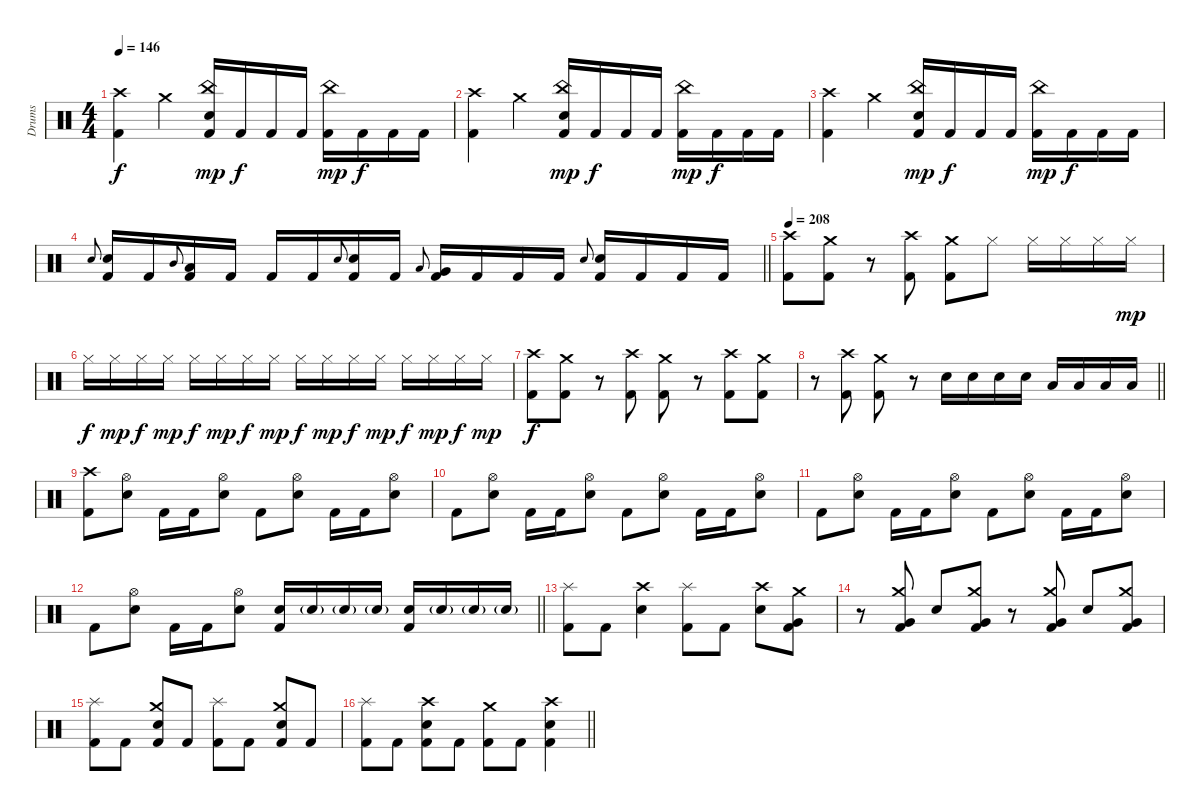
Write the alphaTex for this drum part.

\track ("Drums" "Drums") {instrument percussion}
\staff {score}
\articulation defaults
\ts (4 4)
\tempo 146
\clef neutral
\ks c
("Crash high (hit)" "Kick (hit) 2").4{dy f} "Crash medium (hit)".4 ("China (hit)" "Electric Snare (hit)" "Kick (hit) 2").16{dy mp} "Kick (hit) 2".16{dy f} "Kick (hit) 2".16 "Kick (hit) 2".16 ("China (hit)" "Kick (hit) 2").16{dy mp} "Kick (hit) 2".16{dy f} "Kick (hit) 2".16 "Kick (hit) 2".16 |
("Crash high (hit)" "Kick (hit) 2").4 "Crash medium (hit)".4 ("China (hit)" "Electric Snare (hit)" "Kick (hit) 2").16{dy mp} "Kick (hit) 2".16{dy f} "Kick (hit) 2".16 "Kick (hit) 2".16 ("China (hit)" "Kick (hit) 2").16{dy mp} "Kick (hit) 2".16{dy f} "Kick (hit) 2".16 "Kick (hit) 2".16 |
("Crash high (hit)" "Kick (hit) 2").4 "Crash medium (hit)".4 ("China (hit)" "Electric Snare (hit)" "Kick (hit) 2").16{dy mp} "Kick (hit) 2".16{dy f} "Kick (hit) 2".16 "Kick (hit) 2".16 ("China (hit)" "Kick (hit) 2").16{dy mp} "Kick (hit) 2".16{dy f} "Kick (hit) 2".16 "Kick (hit) 2".16 |
\barLineRight lightlight "Electric Snare (hit)".8{gr onbeat}
("Electric Snare (hit)" "Kick (hit) 2").16 "Kick (hit) 2".16 "Mid Tom (hit)".8{gr onbeat} ("Low Tom (hit)" "Kick (hit) 2").16 "Kick (hit) 2".16 "Kick (hit) 2".16 "Kick (hit) 2".16 "Electric Snare (hit)".8{gr onbeat} ("Electric Snare (hit)" "Kick (hit) 2").16 "Kick (hit) 2".16 "Low Tom (hit)".8{gr onbeat} ("Very Low Tom (hit)" "Kick (hit) 2").16 "Kick (hit) 2".16 "Kick (hit) 2".16 "Kick (hit) 2".16 "Electric Snare (hit)".8{gr onbeat} ("Electric Snare (hit)" "Kick (hit) 2").16 "Kick (hit) 2".16 "Kick (hit) 2".16 "Kick (hit) 2".16 |
\tempo 208
("Crash high (hit)" "Kick (hit) 2").8 ("Crash medium (hit)" "Kick (hit) 2").8 r.8 ("Crash high (hit)" "Kick (hit) 2").8 ("Crash medium (hit)" "Kick (hit) 2").8 "Hi-Hat (closed)".8 "Hi-Hat (closed)".16 "Hi-Hat (closed)".16 "Hi-Hat (closed)".16 "Hi-Hat (closed)".16{dy mp} |
"Hi-Hat (closed)".16{dy f} "Hi-Hat (closed)".16{dy mp} "Hi-Hat (closed)".16{dy f} "Hi-Hat (closed)".16{dy mp} "Hi-Hat (closed)".16{dy f} "Hi-Hat (closed)".16{dy mp} "Hi-Hat (closed)".16{dy f} "Hi-Hat (closed)".16{dy mp} "Hi-Hat (closed)".16{dy f} "Hi-Hat (closed)".16{dy mp} "Hi-Hat (closed)".16{dy f} "Hi-Hat (closed)".16{dy mp} "Hi-Hat (closed)".16{dy f} "Hi-Hat (closed)".16{dy mp} "Hi-Hat (closed)".16{dy f} "Hi-Hat (closed)".16{dy mp} |
("Crash high (hit)" "Kick (hit) 2").8{dy f} ("Crash medium (hit)" "Kick (hit) 2").8 r.8 ("Crash high (hit)" "Kick (hit) 2").8 ("Crash medium (hit)" "Kick (hit) 2").8 r.8 ("Crash high (hit)" "Kick (hit) 2").8 ("Crash medium (hit)" "Kick (hit) 2").8 |
\barLineRight lightlight
r.8 ("Crash high (hit)" "Kick (hit) 2").8 ("Crash medium (hit)" "Kick (hit) 2").8 r.8 "Electric Snare (hit)".16 "Electric Snare (hit)".16 "Electric Snare (hit)".16 "Electric Snare (hit)".16 "Low Tom (hit)".16 "Low Tom (hit)".16 "Low Tom (hit)".16 "Low Tom (hit)".16 |
("Crash high (hit)" "Kick (hit) 2").8 ("Hi-Hat (open)" "Electric Snare (hit)").8 "Kick (hit) 2".16 "Kick (hit) 2".16 ("Hi-Hat (open)" "Electric Snare (hit)").8 "Kick (hit) 2".8 ("Hi-Hat (open)" "Electric Snare (hit)").8 "Kick (hit) 2".16 "Kick (hit) 2".16 ("Hi-Hat (open)" "Electric Snare (hit)").8 |
"Kick (hit) 2".8 ("Hi-Hat (open)" "Electric Snare (hit)").8 "Kick (hit) 2".16 "Kick (hit) 2".16 ("Hi-Hat (open)" "Electric Snare (hit)").8 "Kick (hit) 2".8 ("Hi-Hat (open)" "Electric Snare (hit)").8 "Kick (hit) 2".16 "Kick (hit) 2".16 ("Hi-Hat (open)" "Electric Snare (hit)").8 |
"Kick (hit) 2".8 ("Hi-Hat (open)" "Electric Snare (hit)").8 "Kick (hit) 2".16 "Kick (hit) 2".16 ("Hi-Hat (open)" "Electric Snare (hit)").8 "Kick (hit) 2".8 ("Hi-Hat (open)" "Electric Snare (hit)").8 "Kick (hit) 2".16 "Kick (hit) 2".16 ("Hi-Hat (open)" "Electric Snare (hit)").8 |
\barLineRight lightlight "Kick (hit) 2".8
("Hi-Hat (open)" "Electric Snare (hit)").8 "Kick (hit) 2".16 "Kick (hit) 2".16 ("Hi-Hat (open)" "Electric Snare (hit)").8 ("Electric Snare (hit)" "Kick (hit) 2").16 "Electric Snare (hit)"{g}.16 "Electric Snare (hit)"{g}.16 "Electric Snare (hit)"{g}.16 ("Electric Snare (hit)" "Kick (hit) 2").16 "Electric Snare (hit)"{g}.16 "Electric Snare (hit)"{g}.16 "Electric Snare (hit)"{g}.16 |
("Splash (hit)" "Kick (hit) 2").8 "Kick (hit) 2".8 ("Crash high (hit)" "Electric Snare (hit)").4 ("Splash (hit)" "Kick (hit) 2").8 "Kick (hit) 2".8 ("Crash high (hit)" "Electric Snare (hit)").8 ("Crash medium (hit)" "Very Low Tom (hit)" "Kick (hit) 2").8 |
r.8 ("Crash medium (hit)" "Very Low Tom (hit)" "Kick (hit) 2").8 "Electric Snare (hit)".8 ("Crash medium (hit)" "Very Low Tom (hit)" "Kick (hit) 2").8 r.8 ("Crash medium (hit)" "Very Low Tom (hit)" "Kick (hit) 2").8 "Electric Snare (hit)".8 ("Crash medium (hit)" "Very Low Tom (hit)" "Kick (hit) 2").8 |
("Splash (hit)" "Kick (hit) 2").8 "Kick (hit) 2".8 ("Crash medium (hit)" "Electric Snare (hit)" "Kick (hit) 2").8 "Kick (hit) 2".8 ("Splash (hit)" "Kick (hit) 2").8 "Kick (hit) 2".8 ("Crash medium (hit)" "Electric Snare (hit)" "Kick (hit) 2").8 "Kick (hit) 2".8 |
\barLineRight lightlight
("Splash (hit)" "Kick (hit) 2").8 "Kick (hit) 2".8 ("Crash high (hit)" "Electric Snare (hit)" "Kick (hit) 2").8 "Kick (hit) 2".8 ("Crash medium (hit)" "Kick (hit) 2").8 "Kick (hit) 2".8 ("Crash high (hit)" "Electric Snare (hit)" "Kick (hit) 2").4
